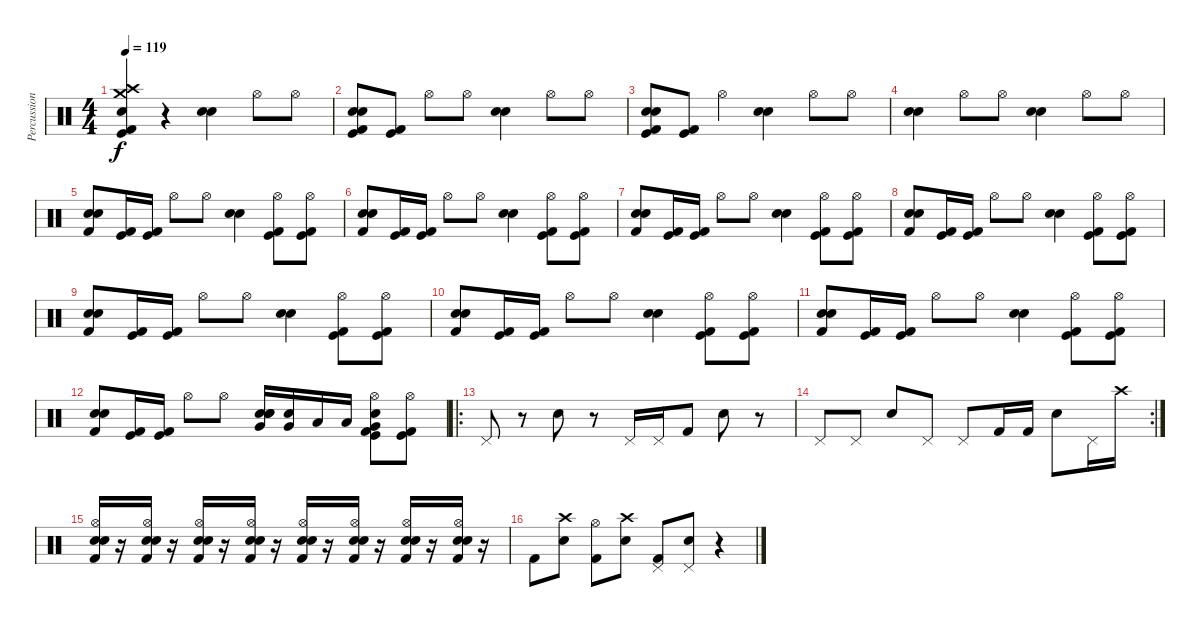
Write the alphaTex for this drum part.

\track ("Percussion" "Percussion") {instrument percussion}
\staff {score}
\articulation defaults
\ts (4 4)
\tempo 119
\clef neutral
\ks c
("Kick (hit) 2" "Hand Clap (hit)" "Crash high (hit)" "Crash medium (hit)" "Kick (hit)").4{dy f} r.4 ("Hand Clap (hit)" "Electric Snare (hit)").4 "Hi-Hat (open)".8 "Hi-Hat (open)".8 |
("Kick (hit) 2" "Hand Clap (hit)" "Electric Snare (hit)" "Kick (hit)").8 ("Kick (hit) 2" "Kick (hit)").8 "Hi-Hat (open)".8 "Hi-Hat (open)".8 ("Hand Clap (hit)" "Electric Snare (hit)").4 "Hi-Hat (open)".8 "Hi-Hat (open)".8 |
("Kick (hit) 2" "Hand Clap (hit)" "Electric Snare (hit)" "Kick (hit)").8 ("Kick (hit) 2" "Kick (hit)").8 "Hi-Hat (open)".4 ("Hand Clap (hit)" "Electric Snare (hit)").4 "Hi-Hat (open)".8 "Hi-Hat (open)".8 |
("Hand Clap (hit)" "Electric Snare (hit)").4 "Hi-Hat (open)".8 "Hi-Hat (open)".8 ("Hand Clap (hit)" "Electric Snare (hit)").4 "Hi-Hat (open)".8 "Hi-Hat (open)".8 |
("Kick (hit) 2" "Hand Clap (hit)" "Electric Snare (hit)").8 ("Kick (hit)" "Kick (hit) 2").16 ("Kick (hit)" "Kick (hit) 2").16 "Hi-Hat (open)".8 "Hi-Hat (open)".8 ("Hand Clap (hit)" "Electric Snare (hit)").4 ("Kick (hit)" "Hi-Hat (open)" "Kick (hit) 2").8 ("Kick (hit) 2" "Hi-Hat (open)" "Kick (hit)").8 |
("Kick (hit) 2" "Hand Clap (hit)" "Electric Snare (hit)").8 ("Kick (hit)" "Kick (hit) 2").16 ("Kick (hit)" "Kick (hit) 2").16 "Hi-Hat (open)".8 "Hi-Hat (open)".8 ("Hand Clap (hit)" "Electric Snare (hit)").4 ("Kick (hit)" "Hi-Hat (open)" "Kick (hit) 2").8 ("Kick (hit) 2" "Hi-Hat (open)" "Kick (hit)").8 |
("Kick (hit) 2" "Hand Clap (hit)" "Electric Snare (hit)").8 ("Kick (hit)" "Kick (hit) 2").16 ("Kick (hit)" "Kick (hit) 2").16 "Hi-Hat (open)".8 "Hi-Hat (open)".8 ("Hand Clap (hit)" "Electric Snare (hit)").4 ("Kick (hit)" "Hi-Hat (open)" "Kick (hit) 2").8 ("Kick (hit) 2" "Hi-Hat (open)" "Kick (hit)").8 |
("Kick (hit) 2" "Hand Clap (hit)" "Electric Snare (hit)").8 ("Kick (hit)" "Kick (hit) 2").16 ("Kick (hit)" "Kick (hit) 2").16 "Hi-Hat (open)".8 "Hi-Hat (open)".8 ("Hand Clap (hit)" "Electric Snare (hit)").4 ("Kick (hit)" "Hi-Hat (open)" "Kick (hit) 2").8 ("Kick (hit) 2" "Hi-Hat (open)" "Kick (hit)").8 |
("Kick (hit) 2" "Hand Clap (hit)" "Electric Snare (hit)").8 ("Kick (hit)" "Kick (hit) 2").16 ("Kick (hit)" "Kick (hit) 2").16 "Hi-Hat (open)".8 "Hi-Hat (open)".8 ("Hand Clap (hit)" "Electric Snare (hit)").4 ("Kick (hit)" "Hi-Hat (open)" "Kick (hit) 2").8 ("Kick (hit) 2" "Hi-Hat (open)" "Kick (hit)").8 |
("Kick (hit) 2" "Hand Clap (hit)" "Electric Snare (hit)").8 ("Kick (hit)" "Kick (hit) 2").16 ("Kick (hit)" "Kick (hit) 2").16 "Hi-Hat (open)".8 "Hi-Hat (open)".8 ("Hand Clap (hit)" "Electric Snare (hit)").4 ("Kick (hit)" "Hi-Hat (open)" "Kick (hit) 2").8 ("Kick (hit) 2" "Hi-Hat (open)" "Kick (hit)").8 |
("Kick (hit) 2" "Hand Clap (hit)" "Electric Snare (hit)").8 ("Kick (hit)" "Kick (hit) 2").16 ("Kick (hit)" "Kick (hit) 2").16 "Hi-Hat (open)".8 "Hi-Hat (open)".8 ("Hand Clap (hit)" "Electric Snare (hit)").4 ("Kick (hit)" "Hi-Hat (open)" "Kick (hit) 2").8 ("Kick (hit) 2" "Hi-Hat (open)" "Kick (hit)").8 |
("Kick (hit) 2" "Hand Clap (hit)" "Electric Snare (hit)").8 ("Kick (hit)" "Kick (hit) 2").16 ("Kick (hit)" "Kick (hit) 2").16 "Hi-Hat (open)".8 "Hi-Hat (open)".8 ("Very Low Tom (hit)" "Electric Snare (hit)" "Hand Clap (hit)" "Electric Snare (hit)").16 ("Very Low Tom (hit)" "Electric Snare (hit)").16 "Low Floor Tom (hit)".16 "Low Floor Tom (hit)".16 ("Electric Snare (hit)" "Kick (hit)" "Hi-Hat (open)" "Kick (hit) 2" "Very Low Tom (hit)").8 ("Kick (hit) 2" "Hi-Hat (open)" "Kick (hit)").8 |
\ro "Pedal Hi-Hat (hit)".8
r.8 "Electric Snare (hit)".8 r.8 "Pedal Hi-Hat (hit)".16 "Pedal Hi-Hat (hit)".16 "Kick (hit) 2".8 "Electric Snare (hit)".8 r.8 |
\rc 2 "Pedal Hi-Hat (hit)".8 "Pedal Hi-Hat (hit)".8 "Electric Snare (hit)".8 "Pedal Hi-Hat (hit)".8 "Pedal Hi-Hat (hit)".8 "Kick (hit) 2".16 "Kick (hit) 2".16 "Electric Snare (hit)".8 "Pedal Hi-Hat (hit)".16 "Crash high (hit)".16
|
("Hi-Hat (open)" "Snare (hit) 2" "Electric Snare (hit)" "Kick (hit) 2").16 r.16 ("Hi-Hat (open)" "Electric Snare (hit)" "Snare (hit) 2" "Kick (hit) 2").16 r.16 ("Hi-Hat (open)" "Electric Snare (hit)" "Snare (hit) 2" "Kick (hit) 2").16 r.16 ("Hi-Hat (open)" "Electric Snare (hit)" "Snare (hit) 2" "Kick (hit) 2").16 r.16 ("Hi-Hat (open)" "Electric Snare (hit)" "Snare (hit) 2" "Kick (hit) 2").16 r.16 ("Hi-Hat (open)" "Electric Snare (hit)" "Snare (hit) 2" "Kick (hit) 2").16 r.16 ("Hi-Hat (open)" "Electric Snare (hit)" "Snare (hit) 2" "Kick (hit) 2").16 r.16 ("Hi-Hat (open)" "Electric Snare (hit)" "Snare (hit) 2" "Kick (hit) 2").16 r.16 |
"Kick (hit) 2".8 ("Crash high (hit)" "Electric Snare (hit)").8 ("Hi-Hat (open)" "Kick (hit) 2").8 ("Crash high (hit)" "Electric Snare (hit)").8 ("Pedal Hi-Hat (hit)" "Kick (hit) 2").8 ("Pedal Hi-Hat (hit)" "Electric Snare (hit)").8 r.4
